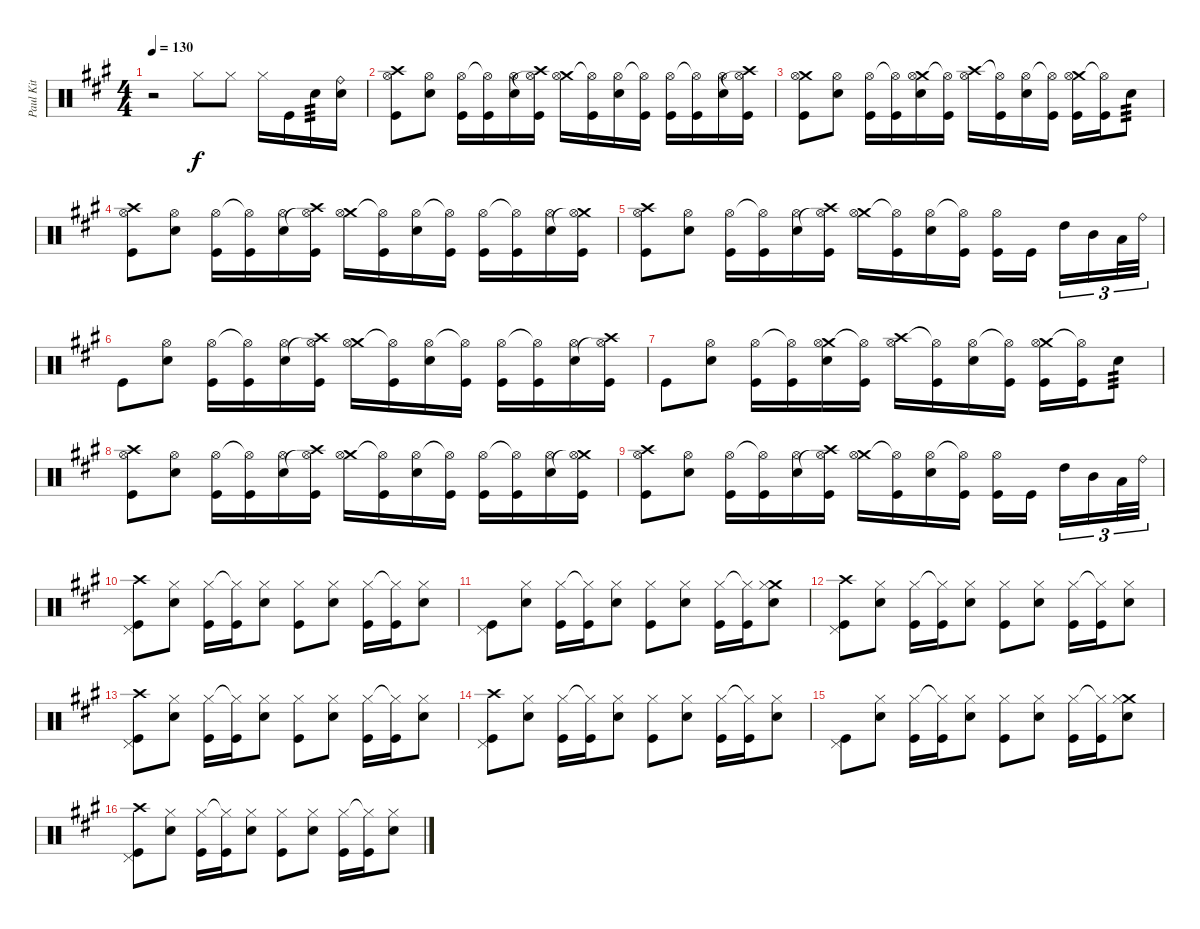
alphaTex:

\track ("Paul Kit" "Paul Kit") {instrument percussion}
\staff {score}
\articulation defaults
\ts (4 4)
\tempo 130
\clef neutral
\ks a
r.2{dy f} "Hi-Hat (closed)".8 "Hi-Hat (closed)".8 "Hi-Hat (closed)".16 "Kick (hit)".16 "Snare (hit) 2".16{tp 3} ("Ride (bell)" "Snare (hit) 2").16 |
("Crash high (hit)" "Hi-Hat (open)" "Kick (hit)").8 ("Hi-Hat (open)" "Snare (hit) 2").8 ("Hi-Hat (open)" "Kick (hit)").16 ("Hi-Hat (open)"{t} "Kick (hit)").16 ("Hi-Hat (open)" "Snare (hit) 2").16 ("Crash high (hit)" "Hi-Hat (open)"{t} "Kick (hit)").16 ("Crash medium (hit)" "Hi-Hat (open)").16 ("Hi-Hat (open)"{t} "Kick (hit)").16 ("Hi-Hat (open)" "Snare (hit) 2").16 ("Hi-Hat (open)"{t} "Kick (hit)").16 ("Hi-Hat (open)" "Kick (hit)").16 ("Hi-Hat (open)"{t} "Kick (hit)").16 ("Hi-Hat (open)" "Snare (hit) 2").16 ("Crash high (hit)" "Hi-Hat (open)"{t} "Kick (hit)").16 |
("Crash medium (hit)" "Hi-Hat (open)" "Kick (hit)").8 ("Hi-Hat (open)" "Snare (hit) 2").8 ("Hi-Hat (open)" "Kick (hit)").16 ("Hi-Hat (open)"{t} "Kick (hit)").16 ("Crash medium (hit)" "Hi-Hat (open)" "Snare (hit) 2").16 ("Hi-Hat (open)"{t} "Kick (hit)").16 ("Crash high (hit)" "Hi-Hat (open)").16 ("Hi-Hat (open)"{t} "Kick (hit)").16 ("Hi-Hat (open)" "Snare (hit) 2").16 ("Hi-Hat (open)"{t} "Kick (hit)").16 ("Crash medium (hit)" "Hi-Hat (open)" "Kick (hit)").16 ("Hi-Hat (open)"{t} "Kick (hit)").16 "Snare (hit) 2".8{tp 3} |
("Crash high (hit)" "Hi-Hat (open)" "Kick (hit)").8 ("Hi-Hat (open)" "Snare (hit) 2").8 ("Hi-Hat (open)" "Kick (hit)").16 ("Hi-Hat (open)"{t} "Kick (hit)").16 ("Hi-Hat (open)" "Snare (hit) 2").16 ("Crash high (hit)" "Hi-Hat (open)"{t} "Kick (hit)").16 ("Crash medium (hit)" "Hi-Hat (open)").16 ("Hi-Hat (open)"{t} "Kick (hit)").16 ("Hi-Hat (open)" "Snare (hit) 2").16 ("Hi-Hat (open)"{t} "Kick (hit)").16 ("Hi-Hat (open)" "Kick (hit)").16 ("Hi-Hat (open)"{t} "Kick (hit)").16 ("Hi-Hat (open)" "Snare (hit) 2").16 ("Crash medium (hit)" "Hi-Hat (open)"{t} "Kick (hit)").16 |
("Crash high (hit)" "Hi-Hat (open)" "Kick (hit)").8 ("Hi-Hat (open)" "Snare (hit) 2").8 ("Hi-Hat (open)" "Kick (hit)").16 ("Hi-Hat (open)"{t} "Kick (hit)").16 ("Hi-Hat (open)" "Snare (hit) 2").16 ("Crash high (hit)" "Hi-Hat (open)"{t} "Kick (hit)").16 ("Crash medium (hit)" "Hi-Hat (open)").16 ("Hi-Hat (open)"{t} "Kick (hit)").16 ("Hi-Hat (open)" "Snare (hit) 2").16 ("Hi-Hat (open)"{t} "Kick (hit)").16 ("Hi-Hat (open)" "Kick (hit)").16 "Kick (hit)".16 "High Tom (hit)".16{tu (3 2)} "Mid Tom (hit)".16{tu (3 2)} "Low Tom (hit)".32{tu (3 2)} "Ride (bell)".32{tu (3 2)} |
"Kick (hit)".8 ("Hi-Hat (open)" "Snare (hit) 2").8 ("Hi-Hat (open)" "Kick (hit)").16 ("Hi-Hat (open)"{t} "Kick (hit)").16 ("Hi-Hat (open)" "Snare (hit) 2").16 ("Crash high (hit)" "Hi-Hat (open)"{t} "Kick (hit)").16 ("Crash medium (hit)" "Hi-Hat (open)").16 ("Hi-Hat (open)"{t} "Kick (hit)").16 ("Hi-Hat (open)" "Snare (hit) 2").16 ("Hi-Hat (open)"{t} "Kick (hit)").16 ("Hi-Hat (open)" "Kick (hit)").16 ("Hi-Hat (open)"{t} "Kick (hit)").16 ("Hi-Hat (open)" "Snare (hit) 2").16 ("Crash high (hit)" "Hi-Hat (open)"{t} "Kick (hit)").16 |
"Kick (hit)".8 ("Hi-Hat (open)" "Snare (hit) 2").8 ("Hi-Hat (open)" "Kick (hit)").16 ("Hi-Hat (open)"{t} "Kick (hit)").16 ("Crash medium (hit)" "Hi-Hat (open)" "Snare (hit) 2").16 ("Hi-Hat (open)"{t} "Kick (hit)").16 ("Crash high (hit)" "Hi-Hat (open)").16 ("Hi-Hat (open)"{t} "Kick (hit)").16 ("Hi-Hat (open)" "Snare (hit) 2").16 ("Hi-Hat (open)"{t} "Kick (hit)").16 ("Crash medium (hit)" "Hi-Hat (open)" "Kick (hit)").16 ("Hi-Hat (open)"{t} "Kick (hit)").16 "Snare (hit) 2".8{tp 3} |
("Crash high (hit)" "Hi-Hat (open)" "Kick (hit)").8 ("Hi-Hat (open)" "Snare (hit) 2").8 ("Hi-Hat (open)" "Kick (hit)").16 ("Hi-Hat (open)"{t} "Kick (hit)").16 ("Hi-Hat (open)" "Snare (hit) 2").16 ("Crash high (hit)" "Hi-Hat (open)"{t} "Kick (hit)").16 ("Crash medium (hit)" "Hi-Hat (open)").16 ("Hi-Hat (open)"{t} "Kick (hit)").16 ("Hi-Hat (open)" "Snare (hit) 2").16 ("Hi-Hat (open)"{t} "Kick (hit)").16 ("Hi-Hat (open)" "Kick (hit)").16 ("Hi-Hat (open)"{t} "Kick (hit)").16 ("Hi-Hat (open)" "Snare (hit) 2").16 ("Crash medium (hit)" "Hi-Hat (open)"{t} "Kick (hit)").16 |
("Crash high (hit)" "Hi-Hat (open)" "Kick (hit)").8 ("Hi-Hat (open)" "Snare (hit) 2").8 ("Hi-Hat (open)" "Kick (hit)").16 ("Hi-Hat (open)"{t} "Kick (hit)").16 ("Hi-Hat (open)" "Snare (hit) 2").16 ("Crash high (hit)" "Hi-Hat (open)"{t} "Kick (hit)").16 ("Crash medium (hit)" "Hi-Hat (open)").16 ("Hi-Hat (open)"{t} "Kick (hit)").16 ("Hi-Hat (open)" "Snare (hit) 2").16 ("Hi-Hat (open)"{t} "Kick (hit)").16 ("Hi-Hat (open)" "Kick (hit)").16 "Kick (hit)".16 "High Tom (hit)".16{tu (3 2)} "Mid Tom (hit)".16{tu (3 2)} "Low Tom (hit)".32{tu (3 2)} "Ride (bell)".32{tu (3 2)} |
("Crash high (hit)" "Pedal Hi-Hat (hit)" "Kick (hit)").8 ("Hi-Hat (closed)" "Snare (hit) 2").8 ("Hi-Hat (closed)" "Kick (hit)").16 ("Hi-Hat (closed)"{t} "Kick (hit)").16 ("Hi-Hat (closed)" "Snare (hit) 2").8 ("Hi-Hat (closed)" "Kick (hit)").8 ("Hi-Hat (closed)" "Snare (hit) 2").8 ("Hi-Hat (closed)" "Kick (hit)").16 ("Hi-Hat (closed)"{t} "Kick (hit)").16 ("Hi-Hat (closed)" "Snare (hit) 2").8 |
("Pedal Hi-Hat (hit)" "Kick (hit)").8 ("Hi-Hat (closed)" "Snare (hit) 2").8 ("Hi-Hat (closed)" "Kick (hit)").16 ("Hi-Hat (closed)"{t} "Kick (hit)").16 ("Hi-Hat (closed)" "Snare (hit) 2").8 ("Hi-Hat (closed)" "Kick (hit)").8 ("Hi-Hat (closed)" "Snare (hit) 2").8 ("Hi-Hat (closed)" "Kick (hit)").16 ("Hi-Hat (closed)"{t} "Kick (hit)").16 ("Crash medium (hit)" "Hi-Hat (closed)" "Snare (hit) 2").8 |
("Crash high (hit)" "Pedal Hi-Hat (hit)" "Kick (hit)").8 ("Hi-Hat (closed)" "Snare (hit) 2").8 ("Hi-Hat (closed)" "Kick (hit)").16 ("Hi-Hat (closed)"{t} "Kick (hit)").16 ("Hi-Hat (closed)" "Snare (hit) 2").8 ("Hi-Hat (closed)" "Kick (hit)").8 ("Hi-Hat (closed)" "Snare (hit) 2").8 ("Hi-Hat (closed)" "Kick (hit)").16 ("Hi-Hat (closed)"{t} "Kick (hit)").16 ("Hi-Hat (closed)" "Snare (hit) 2").8 |
("Crash high (hit)" "Pedal Hi-Hat (hit)" "Kick (hit)").8 ("Hi-Hat (closed)" "Snare (hit) 2").8 ("Hi-Hat (closed)" "Kick (hit)").16 ("Hi-Hat (closed)"{t} "Kick (hit)").16 ("Hi-Hat (closed)" "Snare (hit) 2").8 ("Hi-Hat (closed)" "Kick (hit)").8 ("Hi-Hat (closed)" "Snare (hit) 2").8 ("Hi-Hat (closed)" "Kick (hit)").16 ("Hi-Hat (closed)"{t} "Kick (hit)").16 ("Hi-Hat (closed)" "Snare (hit) 2").8 |
("Crash high (hit)" "Pedal Hi-Hat (hit)" "Kick (hit)").8 ("Hi-Hat (closed)" "Snare (hit) 2").8 ("Hi-Hat (closed)" "Kick (hit)").16 ("Hi-Hat (closed)"{t} "Kick (hit)").16 ("Hi-Hat (closed)" "Snare (hit) 2").8 ("Hi-Hat (closed)" "Kick (hit)").8 ("Hi-Hat (closed)" "Snare (hit) 2").8 ("Hi-Hat (closed)" "Kick (hit)").16 ("Hi-Hat (closed)"{t} "Kick (hit)").16 ("Hi-Hat (closed)" "Snare (hit) 2").8 |
("Pedal Hi-Hat (hit)" "Kick (hit)").8 ("Hi-Hat (closed)" "Snare (hit) 2").8 ("Hi-Hat (closed)" "Kick (hit)").16 ("Hi-Hat (closed)"{t} "Kick (hit)").16 ("Hi-Hat (closed)" "Snare (hit) 2").8 ("Hi-Hat (closed)" "Kick (hit)").8 ("Hi-Hat (closed)" "Snare (hit) 2").8 ("Hi-Hat (closed)" "Kick (hit)").16 ("Hi-Hat (closed)"{t} "Kick (hit)").16 ("Crash medium (hit)" "Hi-Hat (closed)" "Snare (hit) 2").8 |
("Crash high (hit)" "Pedal Hi-Hat (hit)" "Kick (hit)").8 ("Hi-Hat (closed)" "Snare (hit) 2").8 ("Hi-Hat (closed)" "Kick (hit)").16 ("Hi-Hat (closed)"{t} "Kick (hit)").16 ("Hi-Hat (closed)" "Snare (hit) 2").8 ("Hi-Hat (closed)" "Kick (hit)").8 ("Hi-Hat (closed)" "Snare (hit) 2").8 ("Hi-Hat (closed)" "Kick (hit)").16 ("Hi-Hat (closed)"{t} "Kick (hit)").16 ("Hi-Hat (closed)" "Snare (hit) 2").8
